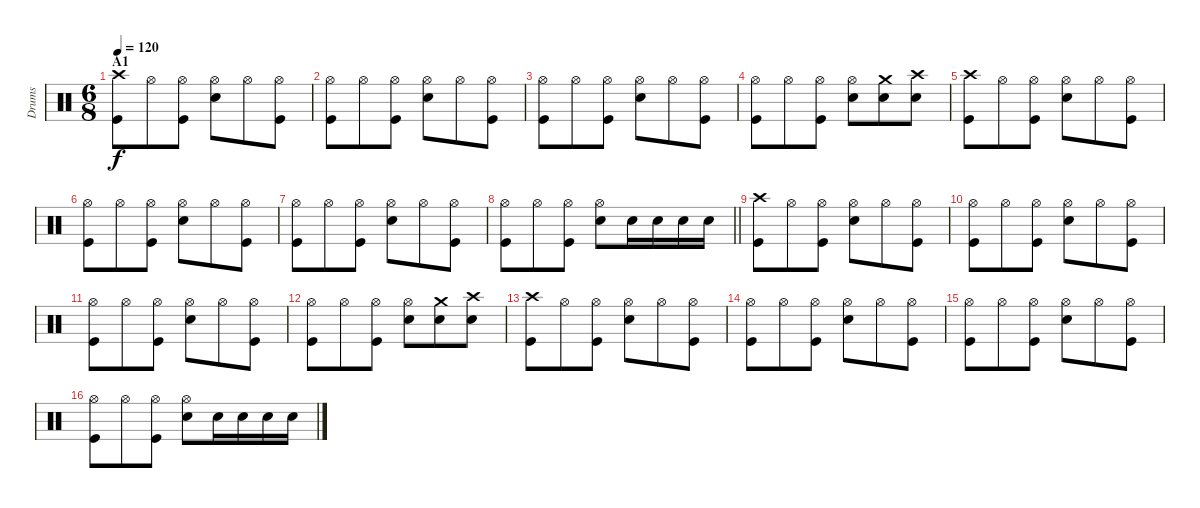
\track ("Drums" "Drums") {instrument percussion}
\staff {score}
\articulation defaults
\ts (6 8)
\section ("" "A1")
\tempo 120
\clef neutral
\ks c
("Crash high (hit)" "Kick (hit)").8{dy f} "Hi-Hat (open)".8 ("Hi-Hat (open)" "Kick (hit)").8 ("Hi-Hat (open)" "Electric Snare (hit)").8 "Hi-Hat (open)".8 ("Hi-Hat (open)" "Kick (hit)").8 |
("Hi-Hat (open)" "Kick (hit)").8 "Hi-Hat (open)".8 ("Hi-Hat (open)" "Kick (hit)").8 ("Hi-Hat (open)" "Electric Snare (hit)").8 "Hi-Hat (open)".8 ("Hi-Hat (open)" "Kick (hit)").8 |
("Hi-Hat (open)" "Kick (hit)").8 "Hi-Hat (open)".8 ("Hi-Hat (open)" "Kick (hit)").8 ("Hi-Hat (open)" "Electric Snare (hit)").8 "Hi-Hat (open)".8 ("Hi-Hat (open)" "Kick (hit)").8 |
("Hi-Hat (open)" "Kick (hit)").8 "Hi-Hat (open)".8 ("Hi-Hat (open)" "Kick (hit)").8 ("Hi-Hat (open)" "Electric Snare (hit)").8 ("Crash medium (hit)" "Electric Snare (hit)").8 ("Crash high (hit)" "Electric Snare (hit)").8 |
("Crash high (hit)" "Kick (hit)").8 "Hi-Hat (open)".8 ("Hi-Hat (open)" "Kick (hit)").8 ("Hi-Hat (open)" "Electric Snare (hit)").8 "Hi-Hat (open)".8 ("Hi-Hat (open)" "Kick (hit)").8 |
("Hi-Hat (open)" "Kick (hit)").8 "Hi-Hat (open)".8 ("Hi-Hat (open)" "Kick (hit)").8 ("Hi-Hat (open)" "Electric Snare (hit)").8 "Hi-Hat (open)".8 ("Hi-Hat (open)" "Kick (hit)").8 |
("Hi-Hat (open)" "Kick (hit)").8 "Hi-Hat (open)".8 ("Hi-Hat (open)" "Kick (hit)").8 ("Hi-Hat (open)" "Electric Snare (hit)").8 "Hi-Hat (open)".8 ("Hi-Hat (open)" "Kick (hit)").8 |
\barLineRight lightlight
("Hi-Hat (open)" "Kick (hit)").8 "Hi-Hat (open)".8 ("Hi-Hat (open)" "Kick (hit)").8 ("Hi-Hat (open)" "Electric Snare (hit)").8 "Electric Snare (hit)".16 "Electric Snare (hit)".16 "Electric Snare (hit)".16 "Electric Snare (hit)".16 |
("Crash high (hit)" "Kick (hit)").8 "Hi-Hat (open)".8 ("Hi-Hat (open)" "Kick (hit)").8 ("Hi-Hat (open)" "Electric Snare (hit)").8 "Hi-Hat (open)".8 ("Hi-Hat (open)" "Kick (hit)").8 |
("Hi-Hat (open)" "Kick (hit)").8 "Hi-Hat (open)".8 ("Hi-Hat (open)" "Kick (hit)").8 ("Hi-Hat (open)" "Electric Snare (hit)").8 "Hi-Hat (open)".8 ("Hi-Hat (open)" "Kick (hit)").8 |
("Hi-Hat (open)" "Kick (hit)").8 "Hi-Hat (open)".8 ("Hi-Hat (open)" "Kick (hit)").8 ("Hi-Hat (open)" "Electric Snare (hit)").8 "Hi-Hat (open)".8 ("Hi-Hat (open)" "Kick (hit)").8 |
("Hi-Hat (open)" "Kick (hit)").8 "Hi-Hat (open)".8 ("Hi-Hat (open)" "Kick (hit)").8 ("Hi-Hat (open)" "Electric Snare (hit)").8 ("Crash medium (hit)" "Electric Snare (hit)").8 ("Crash high (hit)" "Electric Snare (hit)").8 |
("Crash high (hit)" "Kick (hit)").8 "Hi-Hat (open)".8 ("Hi-Hat (open)" "Kick (hit)").8 ("Hi-Hat (open)" "Electric Snare (hit)").8 "Hi-Hat (open)".8 ("Hi-Hat (open)" "Kick (hit)").8 |
("Hi-Hat (open)" "Kick (hit)").8 "Hi-Hat (open)".8 ("Hi-Hat (open)" "Kick (hit)").8 ("Hi-Hat (open)" "Electric Snare (hit)").8 "Hi-Hat (open)".8 ("Hi-Hat (open)" "Kick (hit)").8 |
("Hi-Hat (open)" "Kick (hit)").8 "Hi-Hat (open)".8 ("Hi-Hat (open)" "Kick (hit)").8 ("Hi-Hat (open)" "Electric Snare (hit)").8 "Hi-Hat (open)".8 ("Hi-Hat (open)" "Kick (hit)").8 |
("Hi-Hat (open)" "Kick (hit)").8 "Hi-Hat (open)".8 ("Hi-Hat (open)" "Kick (hit)").8 ("Hi-Hat (open)" "Electric Snare (hit)").8 "Electric Snare (hit)".16 "Electric Snare (hit)".16 "Electric Snare (hit)".16 "Electric Snare (hit)".16
